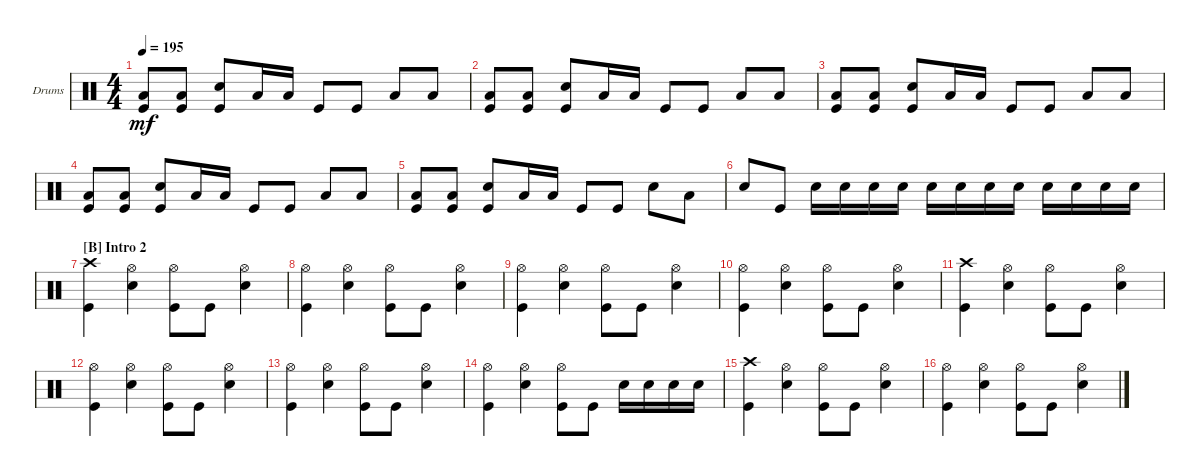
\defaultSystemsLayout 4
\bracketExtendMode groupsimilarinstruments
\firstSystemTrackNameOrientation horizontal
\otherSystemsTrackNameOrientation horizontal
\track ("Drumkit" "Drums") {instrument percussion}
\staff {score}
\articulation defaults
\ts (4 4)
\tempo 195
\clef neutral
\ks c
("Kick (hit)" "Low Tom (hit)").8{dy mf} ("Kick (hit)" "Low Tom (hit)").8 ("Snare (hit) 2" "Kick (hit)").8 "Low Tom (hit)".16 "Low Tom (hit)".16 "Kick (hit)".8 "Kick (hit)".8 "Low Tom (hit)".8 "Low Tom (hit)".8 |
("Kick (hit)" "Low Tom (hit)").8 ("Kick (hit)" "Low Tom (hit)").8 ("Snare (hit) 2" "Kick (hit)").8 "Low Tom (hit)".16 "Low Tom (hit)".16 "Kick (hit)".8 "Kick (hit)".8 "Low Tom (hit)".8 "Low Tom (hit)".8 |
("Kick (hit)" "Low Tom (hit)").8 ("Kick (hit)" "Low Tom (hit)").8 ("Snare (hit) 2" "Kick (hit)").8 "Low Tom (hit)".16 "Low Tom (hit)".16 "Kick (hit)".8 "Kick (hit)".8 "Low Tom (hit)".8 "Low Tom (hit)".8 |
("Kick (hit)" "Low Tom (hit)").8 ("Kick (hit)" "Low Tom (hit)").8 ("Snare (hit) 2" "Kick (hit)").8 "Low Tom (hit)".16 "Low Tom (hit)".16 "Kick (hit)".8 "Kick (hit)".8 "Low Tom (hit)".8 "Low Tom (hit)".8 |
("Kick (hit)" "Low Tom (hit)").8 ("Kick (hit)" "Low Tom (hit)").8 ("Snare (hit) 2" "Kick (hit)").8 "Low Tom (hit)".16 "Low Tom (hit)".16 "Kick (hit)".8 "Kick (hit)".8 "Snare (hit) 2".8 "Low Tom (hit)".8 |
"Snare (hit) 2".8 "Kick (hit)".8 "Snare (hit) 2".16 "Snare (hit) 2".16 "Snare (hit) 2".16 "Snare (hit) 2".16 "Snare (hit) 2".16 "Snare (hit) 2".16 "Snare (hit) 2".16 "Snare (hit) 2".16 "Snare (hit) 2".16 "Snare (hit) 2".16 "Snare (hit) 2".16 "Snare (hit) 2".16 |
\section ("B" "Intro 2")
("Kick (hit)" "Crash high (hit)").4 ("Snare (hit) 2" "Hi-Hat (open)").4 ("Kick (hit)" "Hi-Hat (open)").8 "Kick (hit)".8 ("Snare (hit) 2" "Hi-Hat (open)").4 |
("Kick (hit)" "Hi-Hat (open)").4 ("Snare (hit) 2" "Hi-Hat (open)").4 ("Kick (hit)" "Hi-Hat (open)").8 "Kick (hit)".8 ("Snare (hit) 2" "Hi-Hat (open)").4 |
("Kick (hit)" "Hi-Hat (open)").4 ("Snare (hit) 2" "Hi-Hat (open)").4 ("Kick (hit)" "Hi-Hat (open)").8 "Kick (hit)".8 ("Snare (hit) 2" "Hi-Hat (open)").4 |
("Kick (hit)" "Hi-Hat (open)").4 ("Snare (hit) 2" "Hi-Hat (open)").4 ("Kick (hit)" "Hi-Hat (open)").8 "Kick (hit)".8 ("Snare (hit) 2" "Hi-Hat (open)").4 |
("Kick (hit)" "Crash high (hit)").4 ("Snare (hit) 2" "Hi-Hat (open)").4 ("Kick (hit)" "Hi-Hat (open)").8 "Kick (hit)".8 ("Snare (hit) 2" "Hi-Hat (open)").4 |
("Kick (hit)" "Hi-Hat (open)").4 ("Snare (hit) 2" "Hi-Hat (open)").4 ("Kick (hit)" "Hi-Hat (open)").8 "Kick (hit)".8 ("Snare (hit) 2" "Hi-Hat (open)").4 |
("Kick (hit)" "Hi-Hat (open)").4 ("Snare (hit) 2" "Hi-Hat (open)").4 ("Kick (hit)" "Hi-Hat (open)").8 "Kick (hit)".8 ("Snare (hit) 2" "Hi-Hat (open)").4 |
("Kick (hit)" "Hi-Hat (open)").4 ("Snare (hit) 2" "Hi-Hat (open)").4 ("Kick (hit)" "Hi-Hat (open)").8 "Kick (hit)".8 "Snare (hit) 2".16 "Snare (hit) 2".16 "Snare (hit) 2".16 "Snare (hit) 2".16 |
("Kick (hit)" "Crash high (hit)").4 ("Snare (hit) 2" "Hi-Hat (open)").4 ("Kick (hit)" "Hi-Hat (open)").8 "Kick (hit)".8 ("Snare (hit) 2" "Hi-Hat (open)").4 |
("Kick (hit)" "Hi-Hat (open)").4 ("Snare (hit) 2" "Hi-Hat (open)").4 ("Kick (hit)" "Hi-Hat (open)").8 "Kick (hit)".8 ("Snare (hit) 2" "Hi-Hat (open)").4
